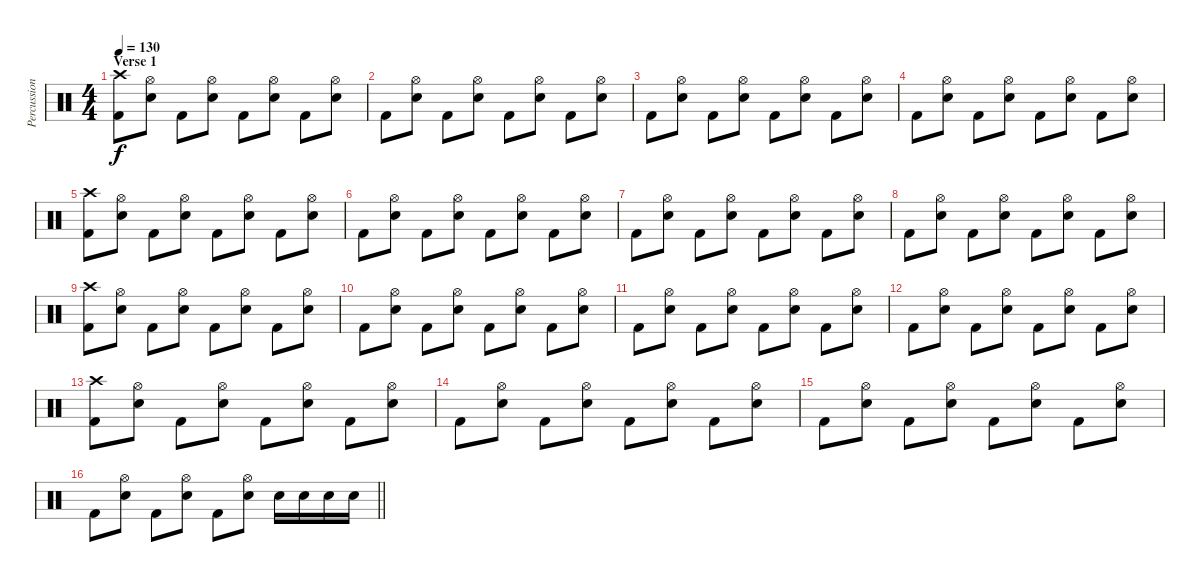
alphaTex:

\track ("Percussion" "Percussion") {instrument percussion}
\staff {score}
\articulation defaults
\ts (4 4)
\section ("" "Verse 1")
\tempo 130
\clef neutral
\ks c
("Crash high (hit)" "Kick (hit) 2").8{dy f} ("Hi-Hat (open)" "Snare (hit) 2").8 "Kick (hit) 2".8 ("Hi-Hat (open)" "Snare (hit) 2").8 "Kick (hit) 2".8 ("Hi-Hat (open)" "Snare (hit) 2").8 "Kick (hit) 2".8 ("Hi-Hat (open)" "Snare (hit) 2").8 |
"Kick (hit) 2".8 ("Hi-Hat (open)" "Snare (hit) 2").8 "Kick (hit) 2".8 ("Hi-Hat (open)" "Snare (hit) 2").8 "Kick (hit) 2".8 ("Hi-Hat (open)" "Snare (hit) 2").8 "Kick (hit) 2".8 ("Hi-Hat (open)" "Snare (hit) 2").8 |
"Kick (hit) 2".8 ("Hi-Hat (open)" "Snare (hit) 2").8 "Kick (hit) 2".8 ("Hi-Hat (open)" "Snare (hit) 2").8 "Kick (hit) 2".8 ("Hi-Hat (open)" "Snare (hit) 2").8 "Kick (hit) 2".8 ("Hi-Hat (open)" "Snare (hit) 2").8 |
"Kick (hit) 2".8 ("Hi-Hat (open)" "Snare (hit) 2").8 "Kick (hit) 2".8 ("Hi-Hat (open)" "Snare (hit) 2").8 "Kick (hit) 2".8 ("Hi-Hat (open)" "Snare (hit) 2").8 "Kick (hit) 2".8 ("Hi-Hat (open)" "Snare (hit) 2").8 |
("Crash high (hit)" "Kick (hit) 2").8 ("Hi-Hat (open)" "Snare (hit) 2").8 "Kick (hit) 2".8 ("Hi-Hat (open)" "Snare (hit) 2").8 "Kick (hit) 2".8 ("Hi-Hat (open)" "Snare (hit) 2").8 "Kick (hit) 2".8 ("Hi-Hat (open)" "Snare (hit) 2").8 |
"Kick (hit) 2".8 ("Hi-Hat (open)" "Snare (hit) 2").8 "Kick (hit) 2".8 ("Hi-Hat (open)" "Snare (hit) 2").8 "Kick (hit) 2".8 ("Hi-Hat (open)" "Snare (hit) 2").8 "Kick (hit) 2".8 ("Hi-Hat (open)" "Snare (hit) 2").8 |
"Kick (hit) 2".8 ("Hi-Hat (open)" "Snare (hit) 2").8 "Kick (hit) 2".8 ("Hi-Hat (open)" "Snare (hit) 2").8 "Kick (hit) 2".8 ("Hi-Hat (open)" "Snare (hit) 2").8 "Kick (hit) 2".8 ("Hi-Hat (open)" "Snare (hit) 2").8 |
"Kick (hit) 2".8 ("Hi-Hat (open)" "Snare (hit) 2").8 "Kick (hit) 2".8 ("Hi-Hat (open)" "Snare (hit) 2").8 "Kick (hit) 2".8 ("Hi-Hat (open)" "Snare (hit) 2").8 "Kick (hit) 2".8 ("Hi-Hat (open)" "Snare (hit) 2").8 |
("Crash high (hit)" "Kick (hit) 2").8 ("Hi-Hat (open)" "Snare (hit) 2").8 "Kick (hit) 2".8 ("Hi-Hat (open)" "Snare (hit) 2").8 "Kick (hit) 2".8 ("Hi-Hat (open)" "Snare (hit) 2").8 "Kick (hit) 2".8 ("Hi-Hat (open)" "Snare (hit) 2").8 |
"Kick (hit) 2".8 ("Hi-Hat (open)" "Snare (hit) 2").8 "Kick (hit) 2".8 ("Hi-Hat (open)" "Snare (hit) 2").8 "Kick (hit) 2".8 ("Hi-Hat (open)" "Snare (hit) 2").8 "Kick (hit) 2".8 ("Hi-Hat (open)" "Snare (hit) 2").8 |
"Kick (hit) 2".8 ("Hi-Hat (open)" "Snare (hit) 2").8 "Kick (hit) 2".8 ("Hi-Hat (open)" "Snare (hit) 2").8 "Kick (hit) 2".8 ("Hi-Hat (open)" "Snare (hit) 2").8 "Kick (hit) 2".8 ("Hi-Hat (open)" "Snare (hit) 2").8 |
"Kick (hit) 2".8 ("Hi-Hat (open)" "Snare (hit) 2").8 "Kick (hit) 2".8 ("Hi-Hat (open)" "Snare (hit) 2").8 "Kick (hit) 2".8 ("Hi-Hat (open)" "Snare (hit) 2").8 "Kick (hit) 2".8 ("Hi-Hat (open)" "Snare (hit) 2").8 |
("Crash high (hit)" "Kick (hit) 2").8 ("Hi-Hat (open)" "Snare (hit) 2").8 "Kick (hit) 2".8 ("Hi-Hat (open)" "Snare (hit) 2").8 "Kick (hit) 2".8 ("Hi-Hat (open)" "Snare (hit) 2").8 "Kick (hit) 2".8 ("Hi-Hat (open)" "Snare (hit) 2").8 |
"Kick (hit) 2".8 ("Hi-Hat (open)" "Snare (hit) 2").8 "Kick (hit) 2".8 ("Hi-Hat (open)" "Snare (hit) 2").8 "Kick (hit) 2".8 ("Hi-Hat (open)" "Snare (hit) 2").8 "Kick (hit) 2".8 ("Hi-Hat (open)" "Snare (hit) 2").8 |
"Kick (hit) 2".8 ("Hi-Hat (open)" "Snare (hit) 2").8 "Kick (hit) 2".8 ("Hi-Hat (open)" "Snare (hit) 2").8 "Kick (hit) 2".8 ("Hi-Hat (open)" "Snare (hit) 2").8 "Kick (hit) 2".8 ("Hi-Hat (open)" "Snare (hit) 2").8 |
\barLineRight lightlight "Kick (hit) 2".8
("Hi-Hat (open)" "Snare (hit) 2").8 "Kick (hit) 2".8 ("Hi-Hat (open)" "Snare (hit) 2").8 "Kick (hit) 2".8 ("Hi-Hat (open)" "Snare (hit) 2").8 "Snare (hit) 2".16 "Snare (hit) 2".16 "Snare (hit) 2".16 "Snare (hit) 2".16
